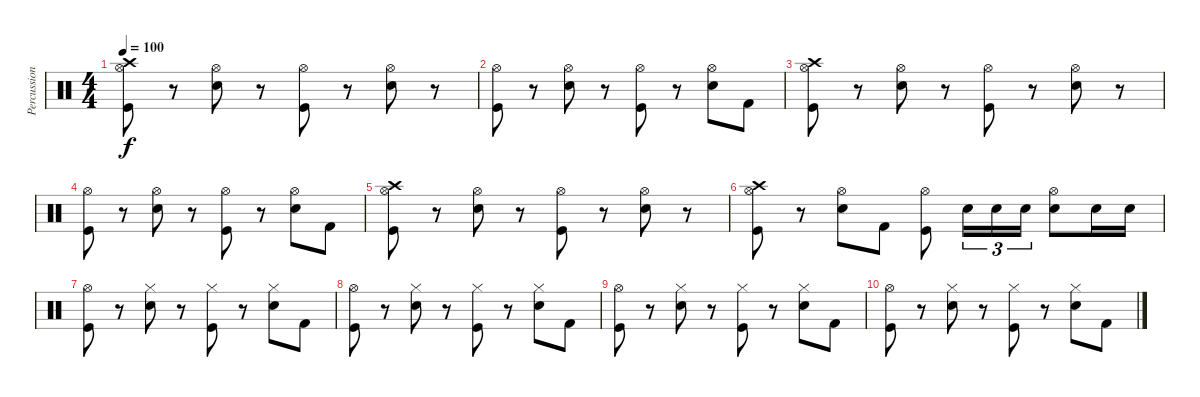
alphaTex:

\track ("Percussions" "Percussion") {instrument percussion}
\staff {score}
\articulation defaults
\ts (4 4)
\tempo 100
\clef neutral
\ks c
("Hi-Hat (open)" "Kick (hit)" "Crash high (hit)").8{dy f} r.8 ("Hi-Hat (open)" "Snare (hit) 2").8 r.8 ("Hi-Hat (open)" "Kick (hit)").8 r.8 ("Hi-Hat (open)" "Snare (hit) 2").8 r.8 |
("Hi-Hat (open)" "Kick (hit)").8 r.8 ("Hi-Hat (open)" "Snare (hit) 2").8 r.8 ("Hi-Hat (open)" "Kick (hit)").8 r.8 ("Hi-Hat (open)" "Snare (hit) 2").8 "Kick (hit) 2".8 |
("Hi-Hat (open)" "Kick (hit)" "Crash high (hit)").8 r.8 ("Hi-Hat (open)" "Snare (hit) 2").8 r.8 ("Hi-Hat (open)" "Kick (hit)").8 r.8 ("Hi-Hat (open)" "Snare (hit) 2").8 r.8 |
("Hi-Hat (open)" "Kick (hit)").8 r.8 ("Hi-Hat (open)" "Snare (hit) 2").8 r.8 ("Hi-Hat (open)" "Kick (hit)").8 r.8 ("Hi-Hat (open)" "Snare (hit) 2").8 "Kick (hit) 2".8 |
("Hi-Hat (open)" "Kick (hit)" "Crash high (hit)").8 r.8 ("Hi-Hat (open)" "Snare (hit) 2").8 r.8 ("Hi-Hat (open)" "Kick (hit)").8 r.8 ("Hi-Hat (open)" "Snare (hit) 2").8 r.8 |
("Hi-Hat (open)" "Kick (hit)" "Crash high (hit)").8 r.8 ("Hi-Hat (open)" "Snare (hit) 2").8 "Kick (hit) 2".8 ("Hi-Hat (open)" "Kick (hit)").8 "Snare (hit) 2".16{tu (3 2)} "Snare (hit) 2".16{tu (3 2)} "Snare (hit) 2".16{tu (3 2)} ("Hi-Hat (open)" "Snare (hit) 2").8 "Snare (hit) 2".16 "Snare (hit) 2".16 |
("Hi-Hat (open)" "Kick (hit)").8 r.8 ("Hi-Hat (closed)" "Snare (hit) 2").8 r.8 ("Hi-Hat (closed)" "Kick (hit)").8 r.8 ("Hi-Hat (closed)" "Snare (hit) 2").8 "Kick (hit) 2".8 |
("Hi-Hat (open)" "Kick (hit)").8 r.8 ("Hi-Hat (closed)" "Snare (hit) 2").8 r.8 ("Hi-Hat (closed)" "Kick (hit)").8 r.8 ("Hi-Hat (closed)" "Snare (hit) 2").8 "Kick (hit) 2".8 |
("Hi-Hat (open)" "Kick (hit)").8 r.8 ("Hi-Hat (closed)" "Snare (hit) 2").8 r.8 ("Hi-Hat (closed)" "Kick (hit)").8 r.8 ("Hi-Hat (closed)" "Snare (hit) 2").8 "Kick (hit) 2".8 |
("Hi-Hat (open)" "Kick (hit)").8 r.8 ("Hi-Hat (closed)" "Snare (hit) 2").8 r.8 ("Hi-Hat (closed)" "Kick (hit)").8 r.8 ("Hi-Hat (closed)" "Snare (hit) 2").8 "Kick (hit) 2".8
